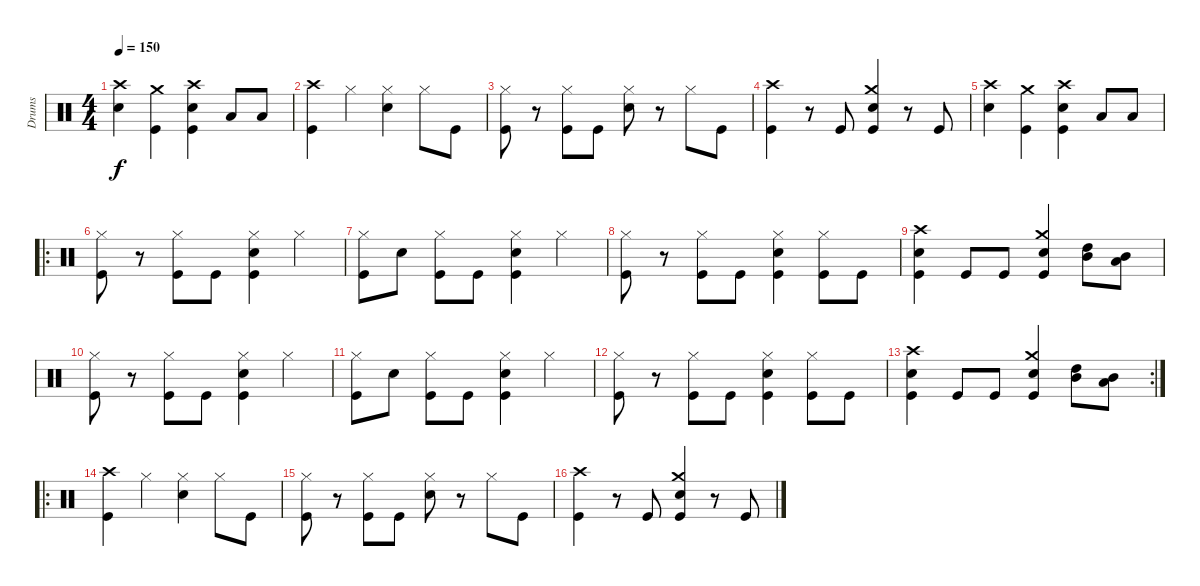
\track ("Drums" "Drums") {instrument percussion}
\staff {score}
\articulation defaults
\ts (4 4)
\tempo 150
\clef neutral
\ks c
("Crash high (hit)" "Snare (hit) 2").4{dy f} ("Crash medium (hit)" "Kick (hit)").4 ("Crash high (hit)" "Snare (hit) 2" "Kick (hit)").4 "Low Tom (hit)".8 "Low Tom (hit)".8 |
("Crash high (hit)" "Kick (hit)").4 "Hi-Hat (closed)".4 ("Hi-Hat (closed)" "Snare (hit) 2").4 "Hi-Hat (closed)".8 "Kick (hit)".8 |
("Hi-Hat (closed)" "Kick (hit)").8 r.8 ("Hi-Hat (closed)" "Kick (hit)").8 "Kick (hit)".8 ("Hi-Hat (closed)" "Snare (hit) 2").8 r.8 "Hi-Hat (closed)".8 "Kick (hit)".8 |
("Crash high (hit)" "Kick (hit)").4 r.8 "Kick (hit)".8 ("Crash medium (hit)" "Snare (hit) 2" "Kick (hit)").4 r.8 "Kick (hit)".8 |
("Crash high (hit)" "Snare (hit) 2").4 ("Crash medium (hit)" "Kick (hit)").4 ("Crash high (hit)" "Snare (hit) 2" "Kick (hit)").4 "Low Tom (hit)".8 "Low Tom (hit)".8 |
\ro
("Hi-Hat (closed)" "Kick (hit)").8 r.8 ("Hi-Hat (closed)" "Kick (hit)").8 "Kick (hit)".8 ("Hi-Hat (closed)" "Snare (hit) 2" "Kick (hit)").4 "Hi-Hat (closed)".4 |
("Hi-Hat (closed)" "Kick (hit)").8 "Snare (hit) 2".8 ("Hi-Hat (closed)" "Kick (hit)").8 "Kick (hit)".8 ("Hi-Hat (closed)" "Snare (hit) 2" "Kick (hit)").4 "Hi-Hat (closed)".4 |
("Hi-Hat (closed)" "Kick (hit)").8 r.8 ("Hi-Hat (closed)" "Kick (hit)").8 "Kick (hit)".8 ("Hi-Hat (closed)" "Snare (hit) 2" "Kick (hit)").4 ("Hi-Hat (closed)" "Kick (hit)").8 "Kick (hit)".8 |
("Crash high (hit)" "Snare (hit) 2" "Kick (hit)").4 "Kick (hit)".8 "Kick (hit)".8 ("Crash medium (hit)" "Snare (hit) 2" "Kick (hit)").4 ("Mid Tom (hit)" "High Tom (hit)").8 ("Low Tom (hit)" "Mid Tom (hit)").8 |
("Hi-Hat (closed)" "Kick (hit)").8 r.8 ("Hi-Hat (closed)" "Kick (hit)").8 "Kick (hit)".8 ("Hi-Hat (closed)" "Snare (hit) 2" "Kick (hit)").4 "Hi-Hat (closed)".4 |
("Hi-Hat (closed)" "Kick (hit)").8 "Snare (hit) 2".8 ("Hi-Hat (closed)" "Kick (hit)").8 "Kick (hit)".8 ("Hi-Hat (closed)" "Snare (hit) 2" "Kick (hit)").4 "Hi-Hat (closed)".4 |
("Hi-Hat (closed)" "Kick (hit)").8 r.8 ("Hi-Hat (closed)" "Kick (hit)").8 "Kick (hit)".8 ("Hi-Hat (closed)" "Snare (hit) 2" "Kick (hit)").4 ("Hi-Hat (closed)" "Kick (hit)").8 "Kick (hit)".8 |
\rc 2
("Crash high (hit)" "Snare (hit) 2" "Kick (hit)").4 "Kick (hit)".8 "Kick (hit)".8 ("Crash medium (hit)" "Snare (hit) 2" "Kick (hit)").4 ("Mid Tom (hit)" "High Tom (hit)").8 ("Low Tom (hit)" "Mid Tom (hit)").8 |
\ro
("Crash high (hit)" "Kick (hit)").4 "Hi-Hat (closed)".4 ("Hi-Hat (closed)" "Snare (hit) 2").4 "Hi-Hat (closed)".8 "Kick (hit)".8 |
("Hi-Hat (closed)" "Kick (hit)").8 r.8 ("Hi-Hat (closed)" "Kick (hit)").8 "Kick (hit)".8 ("Hi-Hat (closed)" "Snare (hit) 2").8 r.8 "Hi-Hat (closed)".8 "Kick (hit)".8 |
("Crash high (hit)" "Kick (hit)").4 r.8 "Kick (hit)".8 ("Crash medium (hit)" "Snare (hit) 2" "Kick (hit)").4 r.8 "Kick (hit)".8
